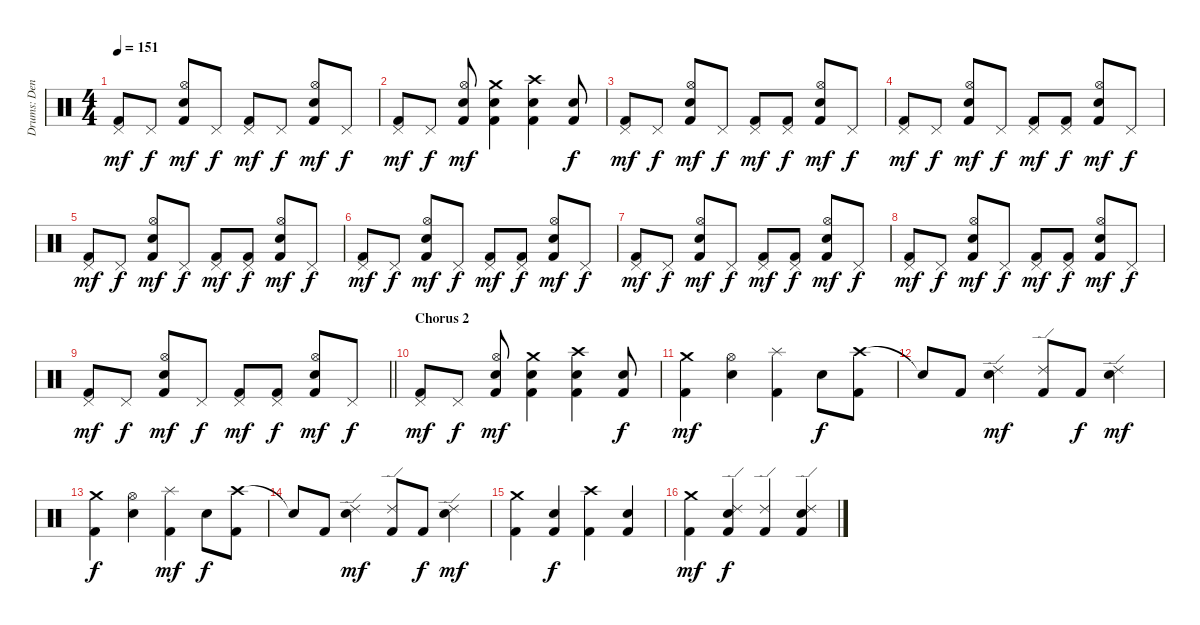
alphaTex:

\track ("Drums: Denny Carmassi" "Drums: Den") {instrument percussion}
\staff {score}
\articulation defaults
\ts (4 4)
\tempo 151
\clef neutral
\ks c
("Pedal Hi-Hat (hit)" "Kick (hit) 2").8{dy mf} "Pedal Hi-Hat (hit)".8{dy f} ("Hi-Hat (open)" "Snare (hit) 2" "Kick (hit) 2").8{dy mf} "Pedal Hi-Hat (hit)".8{dy f} ("Pedal Hi-Hat (hit)" "Kick (hit) 2").8{dy mf} "Pedal Hi-Hat (hit)".8{dy f} ("Hi-Hat (open)" "Snare (hit) 2" "Kick (hit) 2").8{dy mf} "Pedal Hi-Hat (hit)".8{dy f} |
("Pedal Hi-Hat (hit)" "Kick (hit) 2").8{dy mf} "Pedal Hi-Hat (hit)".8{dy f} ("Hi-Hat (open)" "Snare (hit) 2" "Kick (hit) 2").8{dy mf} ("Crash medium (hit)" "Snare (hit) 2" "Kick (hit) 2").4 ("Crash high (hit)" "Snare (hit) 2" "Kick (hit) 2").4 ("Snare (hit) 2" "Kick (hit) 2").8{dy f} |
("Pedal Hi-Hat (hit)" "Kick (hit) 2").8{dy mf} "Pedal Hi-Hat (hit)".8{dy f} ("Hi-Hat (open)" "Snare (hit) 2" "Kick (hit) 2").8{dy mf} "Pedal Hi-Hat (hit)".8{dy f} ("Pedal Hi-Hat (hit)" "Kick (hit) 2").8{dy mf} ("Pedal Hi-Hat (hit)" "Kick (hit) 2").8{dy f} ("Hi-Hat (open)" "Snare (hit) 2" "Kick (hit) 2").8{dy mf} "Pedal Hi-Hat (hit)".8{dy f} |
("Pedal Hi-Hat (hit)" "Kick (hit) 2").8{dy mf} "Pedal Hi-Hat (hit)".8{dy f} ("Hi-Hat (open)" "Snare (hit) 2" "Kick (hit) 2").8{dy mf} "Pedal Hi-Hat (hit)".8{dy f} ("Pedal Hi-Hat (hit)" "Kick (hit) 2").8{dy mf} ("Pedal Hi-Hat (hit)" "Kick (hit) 2").8{dy f} ("Hi-Hat (open)" "Snare (hit) 2" "Kick (hit) 2").8{dy mf} "Pedal Hi-Hat (hit)".8{dy f} |
("Pedal Hi-Hat (hit)" "Kick (hit) 2").8{dy mf} "Pedal Hi-Hat (hit)".8{dy f} ("Hi-Hat (open)" "Snare (hit) 2" "Kick (hit) 2").8{dy mf} "Pedal Hi-Hat (hit)".8{dy f} ("Pedal Hi-Hat (hit)" "Kick (hit) 2").8{dy mf} ("Pedal Hi-Hat (hit)" "Kick (hit) 2").8{dy f} ("Hi-Hat (open)" "Snare (hit) 2" "Kick (hit) 2").8{dy mf} "Pedal Hi-Hat (hit)".8{dy f} |
("Pedal Hi-Hat (hit)" "Kick (hit) 2").8{dy mf} "Pedal Hi-Hat (hit)".8{dy f} ("Hi-Hat (open)" "Snare (hit) 2" "Kick (hit) 2").8{dy mf} "Pedal Hi-Hat (hit)".8{dy f} ("Pedal Hi-Hat (hit)" "Kick (hit) 2").8{dy mf} ("Pedal Hi-Hat (hit)" "Kick (hit) 2").8{dy f} ("Hi-Hat (open)" "Snare (hit) 2" "Kick (hit) 2").8{dy mf} "Pedal Hi-Hat (hit)".8{dy f} |
("Pedal Hi-Hat (hit)" "Kick (hit) 2").8{dy mf} "Pedal Hi-Hat (hit)".8{dy f} ("Hi-Hat (open)" "Snare (hit) 2" "Kick (hit) 2").8{dy mf} "Pedal Hi-Hat (hit)".8{dy f} ("Pedal Hi-Hat (hit)" "Kick (hit) 2").8{dy mf} ("Pedal Hi-Hat (hit)" "Kick (hit) 2").8{dy f} ("Hi-Hat (open)" "Snare (hit) 2" "Kick (hit) 2").8{dy mf} "Pedal Hi-Hat (hit)".8{dy f} |
("Pedal Hi-Hat (hit)" "Kick (hit) 2").8{dy mf} "Pedal Hi-Hat (hit)".8{dy f} ("Hi-Hat (open)" "Snare (hit) 2" "Kick (hit) 2").8{dy mf} "Pedal Hi-Hat (hit)".8{dy f} ("Pedal Hi-Hat (hit)" "Kick (hit) 2").8{dy mf} ("Pedal Hi-Hat (hit)" "Kick (hit) 2").8{dy f} ("Hi-Hat (open)" "Snare (hit) 2" "Kick (hit) 2").8{dy mf} "Pedal Hi-Hat (hit)".8{dy f} |
\barLineRight lightlight
("Pedal Hi-Hat (hit)" "Kick (hit) 2").8{dy mf} "Pedal Hi-Hat (hit)".8{dy f} ("Hi-Hat (open)" "Snare (hit) 2" "Kick (hit) 2").8{dy mf} "Pedal Hi-Hat (hit)".8{dy f} ("Pedal Hi-Hat (hit)" "Kick (hit) 2").8{dy mf} ("Pedal Hi-Hat (hit)" "Kick (hit) 2").8{dy f} ("Hi-Hat (open)" "Snare (hit) 2" "Kick (hit) 2").8{dy mf} "Pedal Hi-Hat (hit)".8{dy f} |
\section ("" "Chorus 2")
("Pedal Hi-Hat (hit)" "Kick (hit) 2").8{dy mf} "Pedal Hi-Hat (hit)".8{dy f} ("Hi-Hat (open)" "Snare (hit) 2" "Kick (hit) 2").8{dy mf} ("Crash medium (hit)" "Snare (hit) 2" "Kick (hit) 2").4 ("Crash high (hit)" "Snare (hit) 2" "Kick (hit) 2").4 ("Snare (hit) 2" "Kick (hit) 2").8{dy f} |
("Crash medium (hit)" "Kick (hit) 2").4{dy mf} ("Hi-Hat (open)" "Snare (hit) 2").4 ("Splash (hit)" "Kick (hit) 2").4 "Snare (hit) 2".8{dy f} ("Crash high (hit)" "Kick (hit) 2").8 |
"Snare (hit)"{t}.8 "Kick (hit) 2".8 ("Ride (edge) 2" "Snare (hit) 2").4{dy mf} ("Ride (edge) 2" "Kick (hit) 2").8 "Kick (hit) 2".8{dy f} ("Ride (edge) 2" "Snare (hit) 2").4{dy mf} |
("Crash medium (hit)" "Kick (hit) 2").4{dy f} ("Hi-Hat (open)" "Snare (hit) 2").4 ("Splash (hit)" "Kick (hit) 2").4{dy mf} "Snare (hit) 2".8{dy f} ("Crash high (hit)" "Kick (hit) 2").8 |
"Snare (hit)"{t}.8 "Kick (hit) 2".8 ("Ride (edge) 2" "Snare (hit) 2").4{dy mf} ("Ride (edge) 2" "Kick (hit) 2").8 "Kick (hit) 2".8{dy f} ("Ride (edge) 2" "Snare (hit) 2").4{dy mf} |
("Crash medium (hit)" "Kick (hit) 2").4 ("Snare (hit) 2" "Kick (hit) 2").4{dy f} ("Crash high (hit)" "Kick (hit) 2").4 ("Snare (hit) 2" "Kick (hit) 2").4 |
("Crash medium (hit)" "Kick (hit) 2").4{dy mf} ("Ride (edge) 2" "Snare (hit) 2" "Kick (hit) 2").4{dy f} ("Ride (edge) 2" "Kick (hit) 2").4 ("Ride (edge) 2" "Snare (hit) 2" "Kick (hit) 2").4
